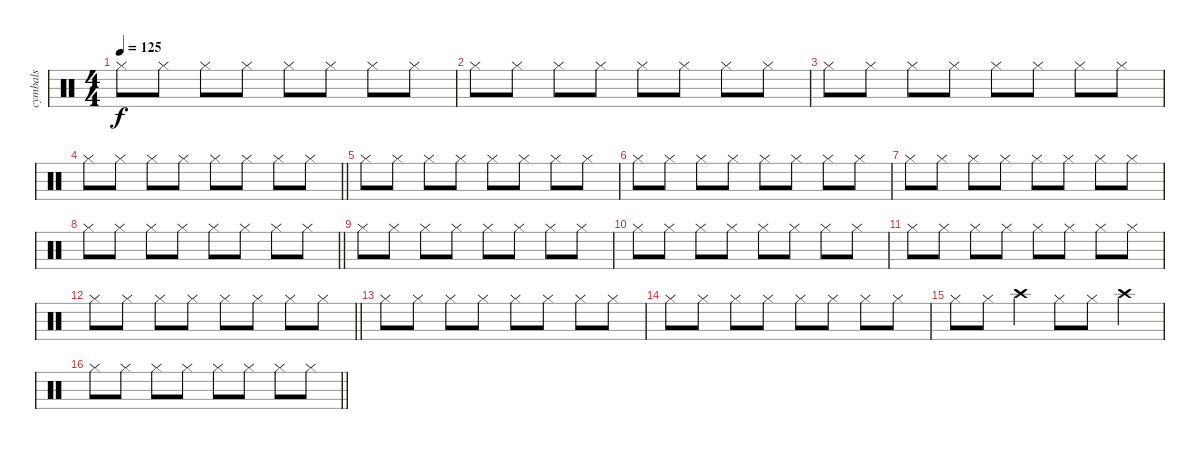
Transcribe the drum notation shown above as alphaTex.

\track ("cymbals" "cymbals") {instrument percussion}
\staff {score}
\articulation defaults
\ts (4 4)
\tempo 125
\clef neutral
\ks c "Hi-Hat (closed)".8{dy f} "Hi-Hat (closed)".8 "Hi-Hat (closed)".8 "Hi-Hat (closed)".8 "Hi-Hat (closed)".8 "Hi-Hat (closed)".8 "Hi-Hat (closed)".8 "Hi-Hat (closed)".8
|
"Hi-Hat (closed)".8 "Hi-Hat (closed)".8 "Hi-Hat (closed)".8 "Hi-Hat (closed)".8 "Hi-Hat (closed)".8 "Hi-Hat (closed)".8 "Hi-Hat (closed)".8 "Hi-Hat (closed)".8 |
"Hi-Hat (closed)".8 "Hi-Hat (closed)".8 "Hi-Hat (closed)".8 "Hi-Hat (closed)".8 "Hi-Hat (closed)".8 "Hi-Hat (closed)".8 "Hi-Hat (closed)".8 "Hi-Hat (closed)".8 |
\barLineRight lightlight "Hi-Hat (closed)".8 "Hi-Hat (closed)".8 "Hi-Hat (closed)".8 "Hi-Hat (closed)".8 "Hi-Hat (closed)".8 "Hi-Hat (closed)".8 "Hi-Hat (closed)".8 "Hi-Hat (closed)".8
|
"Hi-Hat (closed)".8 "Hi-Hat (closed)".8 "Hi-Hat (closed)".8 "Hi-Hat (closed)".8 "Hi-Hat (closed)".8 "Hi-Hat (closed)".8 "Hi-Hat (closed)".8 "Hi-Hat (closed)".8 |
"Hi-Hat (closed)".8 "Hi-Hat (closed)".8 "Hi-Hat (closed)".8 "Hi-Hat (closed)".8 "Hi-Hat (closed)".8 "Hi-Hat (closed)".8 "Hi-Hat (closed)".8 "Hi-Hat (closed)".8 |
"Hi-Hat (closed)".8 "Hi-Hat (closed)".8 "Hi-Hat (closed)".8 "Hi-Hat (closed)".8 "Hi-Hat (closed)".8 "Hi-Hat (closed)".8 "Hi-Hat (closed)".8 "Hi-Hat (closed)".8 |
\barLineRight lightlight "Hi-Hat (closed)".8 "Hi-Hat (closed)".8 "Hi-Hat (closed)".8 "Hi-Hat (closed)".8 "Hi-Hat (closed)".8 "Hi-Hat (closed)".8 "Hi-Hat (closed)".8 "Hi-Hat (closed)".8
|
"Hi-Hat (closed)".8 "Hi-Hat (closed)".8 "Hi-Hat (closed)".8 "Hi-Hat (closed)".8 "Hi-Hat (closed)".8 "Hi-Hat (closed)".8 "Hi-Hat (closed)".8 "Hi-Hat (closed)".8 |
"Hi-Hat (closed)".8 "Hi-Hat (closed)".8 "Hi-Hat (closed)".8 "Hi-Hat (closed)".8 "Hi-Hat (closed)".8 "Hi-Hat (closed)".8 "Hi-Hat (closed)".8 "Hi-Hat (closed)".8 |
"Hi-Hat (closed)".8 "Hi-Hat (closed)".8 "Hi-Hat (closed)".8 "Hi-Hat (closed)".8 "Hi-Hat (closed)".8 "Hi-Hat (closed)".8 "Hi-Hat (closed)".8 "Hi-Hat (closed)".8 |
\barLineRight lightlight "Hi-Hat (closed)".8 "Hi-Hat (closed)".8 "Hi-Hat (closed)".8 "Hi-Hat (closed)".8 "Hi-Hat (closed)".8 "Hi-Hat (closed)".8 "Hi-Hat (closed)".8 "Hi-Hat (closed)".8
|
"Hi-Hat (closed)".8 "Hi-Hat (closed)".8 "Hi-Hat (closed)".8 "Hi-Hat (closed)".8 "Hi-Hat (closed)".8 "Hi-Hat (closed)".8 "Hi-Hat (closed)".8 "Hi-Hat (closed)".8 |
"Hi-Hat (closed)".8 "Hi-Hat (closed)".8 "Hi-Hat (closed)".8 "Hi-Hat (closed)".8 "Hi-Hat (closed)".8 "Hi-Hat (closed)".8 "Hi-Hat (closed)".8 "Hi-Hat (closed)".8 |
"Hi-Hat (closed)".8 "Hi-Hat (closed)".8 "Crash high (hit)".4 "Hi-Hat (closed)".8 "Hi-Hat (closed)".8 "Crash high (hit)".4 |
\barLineRight lightlight "Hi-Hat (closed)".8 "Hi-Hat (closed)".8 "Hi-Hat (closed)".8 "Hi-Hat (closed)".8 "Hi-Hat (closed)".8 "Hi-Hat (closed)".8 "Hi-Hat (closed)".8 "Hi-Hat (closed)".8
